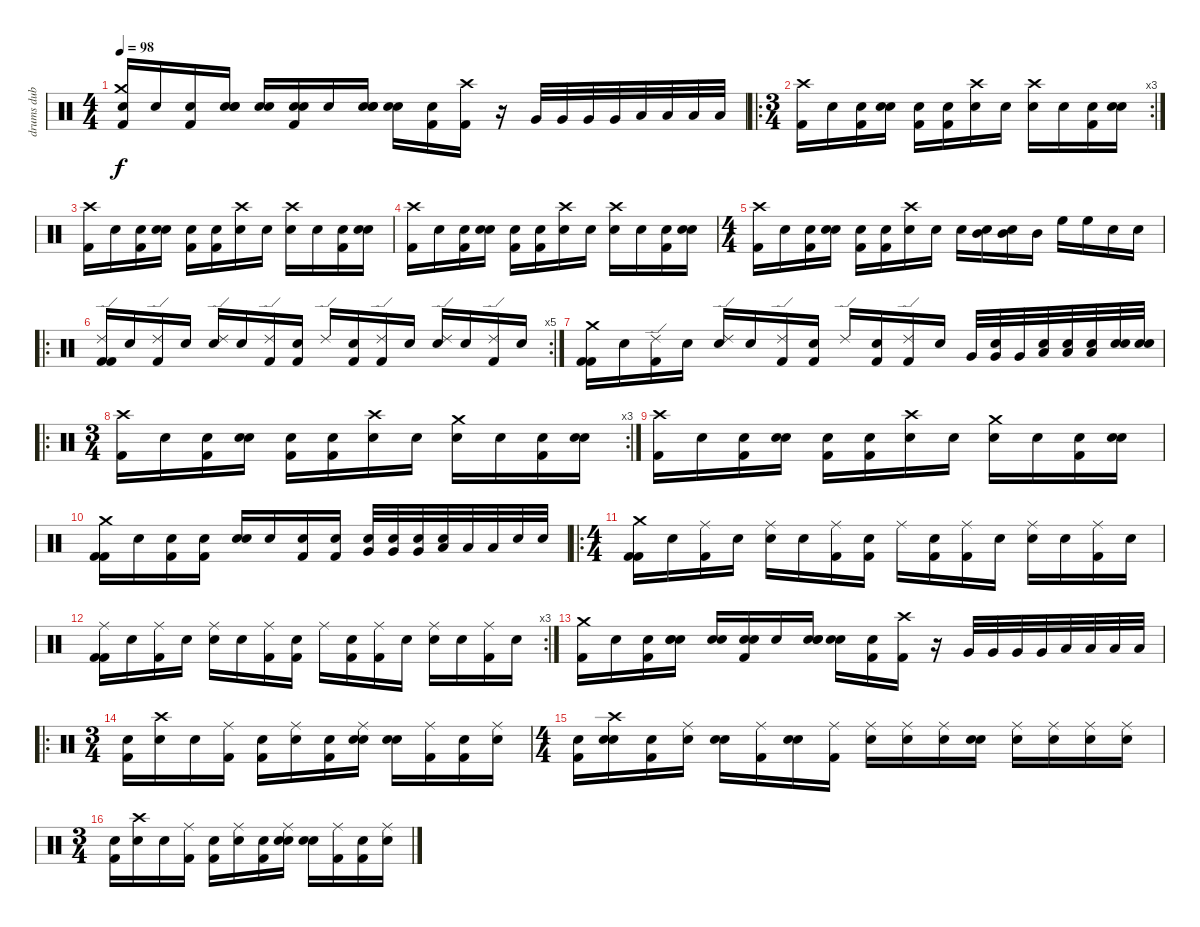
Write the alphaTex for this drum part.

\track ("drums dub" "drums dub") {instrument percussion}
\staff {score}
\articulation defaults
\ts (4 4)
\tempo 98
\clef neutral
\ks c
("Snare (hit)" "Crash medium (hit)" "Kick (hit) 2").16{dy f} "Snare (hit)".16 ("Snare (hit)" "Kick (hit) 2").16 ("Snare (hit)" "Snare (hit)" "Snare (hit)").16 ("Snare (hit)" "Snare (hit) 2").16 ("Snare (hit)" "Snare (hit)" "Kick (hit) 2").16 "Snare (hit)".16 ("Snare (hit)" "Snare (hit)" "Snare (hit)").16 ("Snare (hit)" "Snare (hit)").16 ("Snare (hit) 2" "Kick (hit) 2").16 ("Crash high (hit)" "Kick (hit) 2").16 r.16 "Very Low Tom (hit)".32 "Very Low Tom (hit)".32 "Very Low Tom (hit)".32 "Very Low Tom (hit)".32 "Low Floor Tom (hit)".32 "Low Floor Tom (hit)".32 "Low Floor Tom (hit)".32 "Low Floor Tom (hit)".32 |
\ro
\rc 3
\ts (3 4)
("Crash high (hit)" "Kick (hit) 2").16 "Snare (hit)".16 ("Snare (hit)" "Kick (hit) 2").16 ("Snare (hit)" "Snare (hit) 2").16 ("Snare (hit)" "Kick (hit) 2").16 ("Snare (hit)" "Kick (hit) 2").16 ("Crash high (hit)" "Snare (hit) 2").16 "Snare (hit)".16 ("Crash high (hit)" "Snare (hit) 2").16 "Snare (hit)".16 ("Snare (hit)" "Kick (hit) 2").16 ("Snare (hit)" "Snare (hit) 2").16 |
("Crash high (hit)" "Kick (hit) 2").16 "Snare (hit)".16 ("Snare (hit)" "Kick (hit) 2").16 ("Snare (hit)" "Snare (hit) 2").16 ("Snare (hit)" "Kick (hit) 2").16 ("Snare (hit)" "Kick (hit) 2").16 ("Crash high (hit)" "Snare (hit) 2").16 "Snare (hit)".16 ("Crash high (hit)" "Snare (hit) 2").16 "Snare (hit)".16 ("Snare (hit)" "Kick (hit) 2").16 ("Snare (hit)" "Snare (hit) 2").16 |
("Crash high (hit)" "Kick (hit) 2").16 "Snare (hit)".16 ("Snare (hit)" "Kick (hit) 2").16 ("Snare (hit)" "Snare (hit) 2").16 ("Snare (hit)" "Kick (hit) 2").16 ("Snare (hit)" "Kick (hit) 2").16 ("Crash high (hit)" "Snare (hit) 2").16 "Snare (hit)".16 ("Crash high (hit)" "Snare (hit) 2").16 "Snare (hit)".16 ("Snare (hit)" "Kick (hit) 2").16 ("Snare (hit)" "Snare (hit) 2").16 |
\ts (4 4)
("Crash high (hit)" "Kick (hit) 2").16 "Snare (hit)".16 ("Snare (hit)" "Kick (hit) 2").16 ("Snare (hit)" "Snare (hit) 2").16 ("Snare (hit)" "Kick (hit) 2").16 ("Snare (hit)" "Kick (hit) 2").16 ("Crash high (hit)" "Snare (hit) 2").16 "Snare (hit)".16 "Snare (hit) 2".16 ("Snare (hit)" "Mid Tom (hit)").16 ("Snare (hit)" "Mid Tom (hit)").16 "Mid Tom (hit)".16 "High Floor Tom (hit)".16 "High Floor Tom (hit)".16 "Snare (hit) 2".16 "Snare (hit) 2".16 |
\ro
\rc 5
("Ride (edge) 2" "Kick (hit) 2" "Kick (hit) 2").16 "Snare (hit)".16 ("Ride (edge) 2" "Kick (hit) 2").16 "Snare (hit)".16 ("Ride (edge) 2" "Snare (hit) 2").16 "Snare (hit)".16 ("Ride (edge) 2" "Kick (hit) 2").16 ("Snare (hit)" "Kick (hit) 2").16 "Ride (edge) 2".16 ("Snare (hit)" "Kick (hit) 2").16 ("Ride (edge) 2" "Kick (hit) 2").16 "Snare (hit)".16 ("Ride (edge) 2" "Snare (hit) 2").16 "Snare (hit)".16 ("Ride (edge) 2" "Kick (hit) 2").16 "Snare (hit)".16 |
("Crash medium (hit)" "Kick (hit) 2" "Kick (hit) 2").16 "Snare (hit)".16 ("Ride (edge) 2" "Kick (hit) 2").16 "Snare (hit)".16 ("Ride (edge) 2" "Snare (hit) 2").16 "Snare (hit)".16 ("Ride (edge) 2" "Kick (hit) 2").16 ("Snare (hit)" "Kick (hit) 2").16 "Ride (edge) 2".16 ("Snare (hit)" "Kick (hit) 2").16 ("Ride (edge) 2" "Kick (hit) 2").16 "Snare (hit)".16 "Very Low Tom (hit)".32 ("Snare (hit)" "Very Low Tom (hit)").32 "Very Low Tom (hit)".32 ("Snare (hit)" "Low Floor Tom (hit)").32 ("Snare (hit)" "Low Floor Tom (hit)").32 ("Snare (hit)" "Low Floor Tom (hit)").32 ("Snare (hit)" "Snare (hit) 2").32 ("Snare (hit)" "Snare (hit) 2").32 |
\ro
\rc 3
\ts (3 4)
("Crash high (hit)" "Kick (hit) 2").16 "Snare (hit)".16 ("Snare (hit)" "Kick (hit) 2").16 ("Snare (hit)" "Snare (hit) 2").16 ("Snare (hit)" "Kick (hit) 2").16 ("Snare (hit)" "Kick (hit) 2").16 ("Crash high (hit)" "Snare (hit) 2").16 "Snare (hit)".16 ("Crash medium (hit)" "Snare (hit) 2").16 "Snare (hit)".16 ("Snare (hit)" "Kick (hit) 2").16 ("Snare (hit)" "Snare (hit) 2").16 |
("Crash high (hit)" "Kick (hit) 2").16 "Snare (hit)".16 ("Snare (hit)" "Kick (hit) 2").16 ("Snare (hit)" "Snare (hit) 2").16 ("Snare (hit)" "Kick (hit) 2").16 ("Snare (hit)" "Kick (hit) 2").16 ("Crash high (hit)" "Snare (hit) 2").16 "Snare (hit)".16 ("Crash medium (hit)" "Snare (hit) 2").16 "Snare (hit)".16 ("Snare (hit)" "Kick (hit) 2").16 ("Snare (hit)" "Snare (hit) 2").16 |
("Crash medium (hit)" "Kick (hit) 2" "Kick (hit) 2").16 "Snare (hit)".16 ("Snare (hit)" "Kick (hit) 2").16 ("Snare (hit)" "Kick (hit) 2").16 ("Snare (hit)" "Snare (hit)").16 "Snare (hit)".16 ("Snare (hit)" "Kick (hit) 2").16 ("Snare (hit)" "Kick (hit) 2").16 ("Snare (hit)" "Very Low Tom (hit)").32 ("Snare (hit)" "Very Low Tom (hit)").32 ("Snare (hit)" "Very Low Tom (hit)").32 ("Snare (hit)" "Low Floor Tom (hit)").32 "Low Floor Tom (hit)".32 "Low Floor Tom (hit)".32 "Snare (hit) 2".32 "Snare (hit) 2".32 |
\ro
\ts (4 4)
("Crash medium (hit)" "Kick (hit) 2" "Kick (hit) 2").16 "Snare (hit)".16 ("Ride (middle)" "Kick (hit) 2").16 "Snare (hit)".16 ("Ride (middle)" "Snare (hit) 2").16 "Snare (hit)".16 ("Ride (middle)" "Kick (hit) 2").16 ("Snare (hit)" "Kick (hit) 2").16 "Ride (middle)".16 ("Snare (hit)" "Kick (hit) 2").16 ("Ride (middle)" "Kick (hit) 2").16 "Snare (hit)".16 ("Ride (middle)" "Snare (hit) 2").16 "Snare (hit)".16 ("Ride (middle)" "Kick (hit) 2").16 "Snare (hit)".16 |
\rc 3
("Ride (middle)" "Kick (hit) 2" "Kick (hit) 2").16 "Snare (hit)".16 ("Ride (middle)" "Kick (hit) 2").16 "Snare (hit)".16 ("Ride (middle)" "Snare (hit) 2").16 "Snare (hit)".16 ("Ride (middle)" "Kick (hit) 2").16 ("Snare (hit)" "Kick (hit) 2").16 "Ride (middle)".16 ("Snare (hit)" "Kick (hit) 2").16 ("Ride (middle)" "Kick (hit) 2").16 "Snare (hit)".16 ("Ride (middle)" "Snare (hit) 2").16 "Snare (hit)".16 ("Ride (middle)" "Kick (hit) 2").16 "Snare (hit)".16 |
("Crash medium (hit)" "Kick (hit) 2").16 "Snare (hit)".16 ("Snare (hit)" "Kick (hit) 2").16 ("Snare (hit)" "Snare (hit)" "Snare (hit)").16 ("Snare (hit)" "Snare (hit) 2").16 ("Snare (hit)" "Snare (hit)" "Kick (hit) 2").16 "Snare (hit)".16 ("Snare (hit)" "Snare (hit)" "Snare (hit)").16 ("Snare (hit)" "Snare (hit)").16 ("Snare (hit) 2" "Kick (hit) 2").16 ("Crash high (hit)" "Kick (hit) 2").16 r.16 "Very Low Tom (hit)".32 "Very Low Tom (hit)".32 "Very Low Tom (hit)".32 "Very Low Tom (hit)".32 "Low Floor Tom (hit)".32 "Low Floor Tom (hit)".32 "Low Floor Tom (hit)".32 "Low Floor Tom (hit)".32 |
\ro
\ts (3 4)
("Snare (hit)" "Kick (hit) 2").16 ("Crash high (hit)" "Snare (hit) 2").16 "Snare (hit)".16 ("Ride (middle)" "Kick (hit) 2").16 ("Snare (hit)" "Kick (hit) 2").16 ("Ride (middle)" "Snare (hit)").16 ("Snare (hit)" "Kick (hit) 2").16 ("Ride (middle)" "Snare (hit) 2" "Snare (hit)").16 ("Snare (hit)" "Snare (hit)").16 ("Ride (middle)" "Kick (hit) 2").16 ("Snare (hit)" "Kick (hit) 2").16 ("Ride (middle)" "Snare (hit)").16 |
\ts (4 4)
("Snare (hit)" "Kick (hit) 2").16 ("Crash high (hit)" "Snare (hit) 2" "Snare (hit)").16 ("Snare (hit)" "Kick (hit) 2").16 ("Ride (middle)" "Snare (hit) 2").16 ("Snare (hit)" "Snare (hit)").16 ("Ride (middle)" "Kick (hit) 2").16 ("Snare (hit)" "Snare (hit)").16 ("Ride (middle)" "Kick (hit) 2").16 ("Ride (middle)" "Snare (hit) 2").16 ("Ride (middle)" "Snare (hit) 2").16 ("Ride (middle)" "Snare (hit) 2").16 ("Snare (hit)" "Snare (hit)").16 ("Ride (middle)" "Snare (hit) 2").16 ("Ride (middle)" "Snare (hit) 2").16 ("Ride (middle)" "Snare (hit) 2").16 ("Ride (middle)" "Snare (hit) 2").16 |
\ts (3 4)
("Snare (hit)" "Kick (hit) 2").16 ("Crash high (hit)" "Snare (hit) 2").16 "Snare (hit)".16 ("Ride (middle)" "Kick (hit) 2").16 ("Snare (hit)" "Kick (hit) 2").16 ("Ride (middle)" "Snare (hit)").16 ("Snare (hit)" "Kick (hit) 2").16 ("Ride (middle)" "Snare (hit) 2" "Snare (hit)").16 ("Snare (hit)" "Snare (hit)").16 ("Ride (middle)" "Kick (hit) 2").16 ("Snare (hit)" "Kick (hit) 2").16 ("Ride (middle)" "Snare (hit)").16
